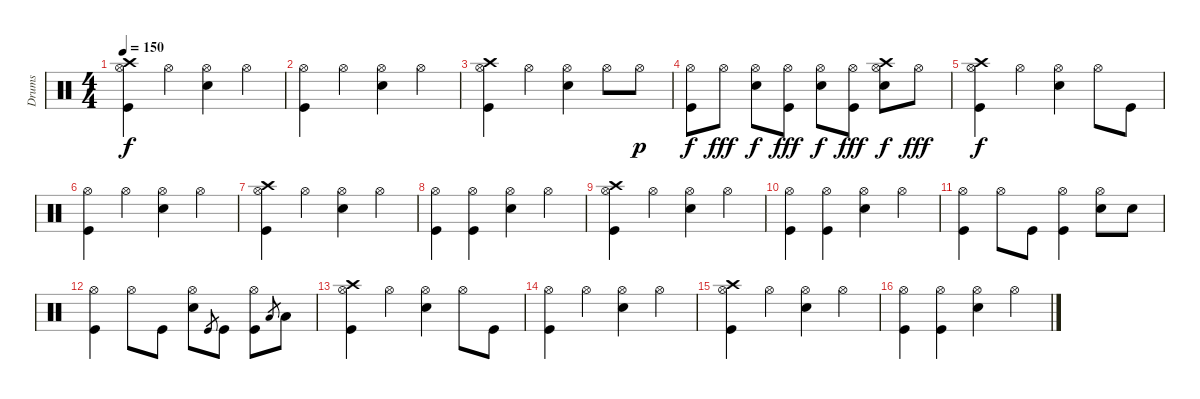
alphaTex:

\track ("Drums" "Drums") {instrument percussion}
\staff {score}
\articulation defaults
\ts (4 4)
\tempo 150
\clef neutral
\ks c
("Crash high (hit)" "Hi-Hat (open)" "Kick (hit)").4{dy f} "Hi-Hat (open)".4 ("Hi-Hat (open)" "Electric Snare (hit)").4 "Hi-Hat (open)".4 |
("Hi-Hat (open)" "Kick (hit)").4 "Hi-Hat (open)".4 ("Hi-Hat (open)" "Electric Snare (hit)").4 "Hi-Hat (open)".4 |
("Crash high (hit)" "Hi-Hat (open)" "Kick (hit)").4 "Hi-Hat (open)".4 ("Hi-Hat (open)" "Electric Snare (hit)").4 "Hi-Hat (open)".8 "Hi-Hat (open)".8{dy p} |
("Hi-Hat (open)" "Kick (hit)").8{dy f} "Hi-Hat (open)".8{dy fff} ("Hi-Hat (open)" "Electric Snare (hit)").8{dy f} ("Hi-Hat (open)" "Kick (hit)").8{dy fff} ("Hi-Hat (open)" "Electric Snare (hit)").8{dy f} ("Hi-Hat (open)" "Kick (hit)").8{dy fff} ("Crash high (hit)" "Hi-Hat (open)" "Electric Snare (hit)").8{dy f} "Hi-Hat (open)".8{dy fff} |
("Crash high (hit)" "Hi-Hat (open)" "Kick (hit)").4{dy f} "Hi-Hat (open)".4 ("Hi-Hat (open)" "Electric Snare (hit)").4 "Hi-Hat (open)".8 "Kick (hit)".8 |
("Hi-Hat (open)" "Kick (hit)").4 "Hi-Hat (open)".4 ("Hi-Hat (open)" "Electric Snare (hit)").4 "Hi-Hat (open)".4 |
("Crash high (hit)" "Hi-Hat (open)" "Kick (hit)").4 "Hi-Hat (open)".4 ("Hi-Hat (open)" "Electric Snare (hit)").4 "Hi-Hat (open)".4 |
("Hi-Hat (open)" "Kick (hit)").4 ("Hi-Hat (open)" "Kick (hit)").4 ("Hi-Hat (open)" "Electric Snare (hit)").4 "Hi-Hat (open)".4 |
("Crash high (hit)" "Hi-Hat (open)" "Kick (hit)").4 "Hi-Hat (open)".4 ("Hi-Hat (open)" "Electric Snare (hit)").4 "Hi-Hat (open)".4 |
("Hi-Hat (open)" "Kick (hit)").4 ("Hi-Hat (open)" "Kick (hit)").4 ("Hi-Hat (open)" "Electric Snare (hit)").4 "Hi-Hat (open)".4 |
("Hi-Hat (open)" "Kick (hit)").4 "Hi-Hat (open)".8 "Kick (hit)".8 ("Hi-Hat (open)" "Kick (hit)").4 ("Hi-Hat (open)" "Electric Snare (hit)").8 "Electric Snare (hit)".8 |
("Hi-Hat (open)" "Kick (hit)").4 "Hi-Hat (open)".8 "Kick (hit)".8 ("Hi-Hat (open)" "Electric Snare (hit)").8 "Kick (hit)".8{gr} "Kick (hit)".8 ("Hi-Hat (open)" "Kick (hit)").8 "Low Tom (hit)".8{gr} "Low Tom (hit)".8 |
("Crash high (hit)" "Hi-Hat (open)" "Kick (hit)").4 "Hi-Hat (open)".4 ("Hi-Hat (open)" "Electric Snare (hit)").4 "Hi-Hat (open)".8 "Kick (hit)".8 |
("Hi-Hat (open)" "Kick (hit)").4 "Hi-Hat (open)".4 ("Hi-Hat (open)" "Electric Snare (hit)").4 "Hi-Hat (open)".4 |
("Crash high (hit)" "Hi-Hat (open)" "Kick (hit)").4 "Hi-Hat (open)".4 ("Hi-Hat (open)" "Electric Snare (hit)").4 "Hi-Hat (open)".4 |
("Hi-Hat (open)" "Kick (hit)").4 ("Hi-Hat (open)" "Kick (hit)").4 ("Hi-Hat (open)" "Electric Snare (hit)").4 "Hi-Hat (open)".4
